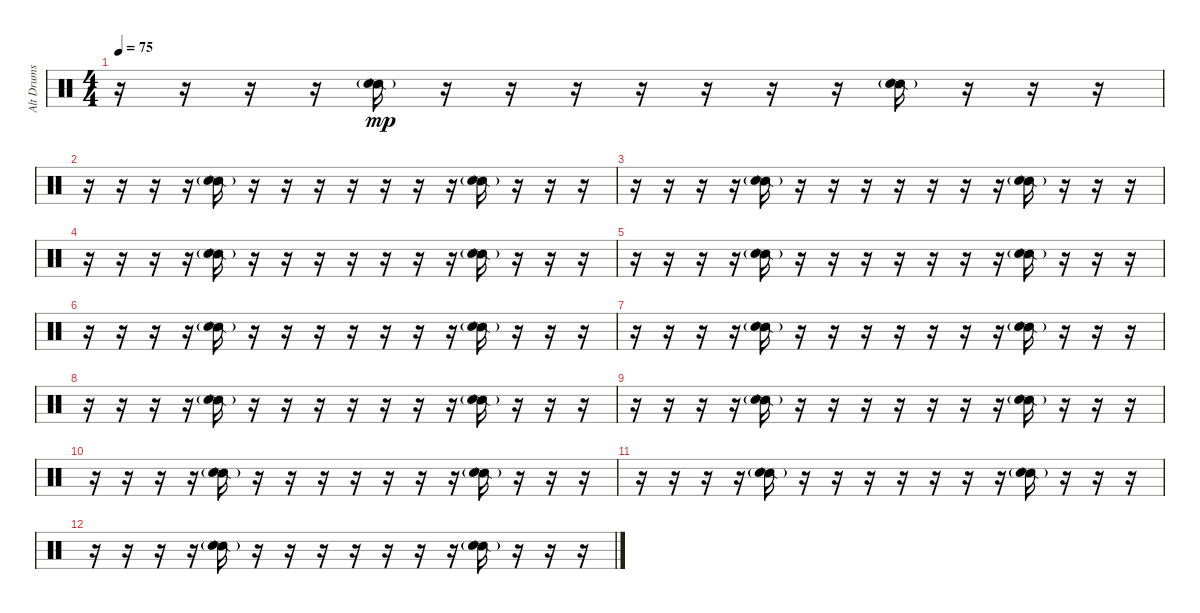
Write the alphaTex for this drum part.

\track ("Alt Drums" "Alt Drums") {instrument percussion}
\staff {score}
\articulation defaults
\ts (4 4)
\tempo 75
\clef neutral
\ks c
r.16{dy mp} r.16 r.16 r.16 ("Snare (side stick) 2" "Hand Clap (hit)"{g}).16 r.16 r.16 r.16 r.16 r.16 r.16 r.16 ("Snare (side stick) 2" "Hand Clap (hit)"{g}).16 r.16 r.16 r.16 |
r.16 r.16 r.16 r.16 ("Snare (side stick) 2" "Hand Clap (hit)"{g}).16 r.16 r.16 r.16 r.16 r.16 r.16 r.16 ("Snare (side stick) 2" "Hand Clap (hit)"{g}).16 r.16 r.16 r.16 |
r.16 r.16 r.16 r.16 ("Snare (side stick) 2" "Hand Clap (hit)"{g}).16 r.16 r.16 r.16 r.16 r.16 r.16 r.16 ("Snare (side stick) 2" "Hand Clap (hit)"{g}).16 r.16 r.16 r.16 |
r.16 r.16 r.16 r.16 ("Snare (side stick) 2" "Hand Clap (hit)"{g}).16 r.16 r.16 r.16 r.16 r.16 r.16 r.16 ("Snare (side stick) 2" "Hand Clap (hit)"{g}).16 r.16 r.16 r.16 |
r.16 r.16 r.16 r.16 ("Snare (side stick) 2" "Hand Clap (hit)"{g}).16 r.16 r.16 r.16 r.16 r.16 r.16 r.16 ("Snare (side stick) 2" "Hand Clap (hit)"{g}).16 r.16 r.16 r.16 |
r.16 r.16 r.16 r.16 ("Snare (side stick) 2" "Hand Clap (hit)"{g}).16 r.16 r.16 r.16 r.16 r.16 r.16 r.16 ("Snare (side stick) 2" "Hand Clap (hit)"{g}).16 r.16 r.16 r.16 |
r.16 r.16 r.16 r.16 ("Snare (side stick) 2" "Hand Clap (hit)"{g}).16 r.16 r.16 r.16 r.16 r.16 r.16 r.16 ("Snare (side stick) 2" "Hand Clap (hit)"{g}).16 r.16 r.16 r.16 |
r.16 r.16 r.16 r.16 ("Snare (side stick) 2" "Hand Clap (hit)"{g}).16 r.16 r.16 r.16 r.16 r.16 r.16 r.16 ("Snare (side stick) 2" "Hand Clap (hit)"{g}).16 r.16 r.16 r.16 |
r.16 r.16 r.16 r.16 ("Snare (side stick) 2" "Hand Clap (hit)"{g}).16 r.16 r.16 r.16 r.16 r.16 r.16 r.16 ("Snare (side stick) 2" "Hand Clap (hit)"{g}).16 r.16 r.16 r.16 |
r.16 r.16 r.16 r.16 ("Snare (side stick) 2" "Hand Clap (hit)"{g}).16 r.16 r.16 r.16 r.16 r.16 r.16 r.16 ("Snare (side stick) 2" "Hand Clap (hit)"{g}).16 r.16 r.16 r.16 |
r.16 r.16 r.16 r.16 ("Snare (side stick) 2" "Hand Clap (hit)"{g}).16 r.16 r.16 r.16 r.16 r.16 r.16 r.16 ("Snare (side stick) 2" "Hand Clap (hit)"{g}).16 r.16 r.16 r.16 |
r.16 r.16 r.16 r.16 ("Snare (side stick) 2" "Hand Clap (hit)"{g}).16 r.16 r.16 r.16 r.16 r.16 r.16 r.16 ("Snare (side stick) 2" "Hand Clap (hit)"{g}).16 r.16 r.16 r.16
